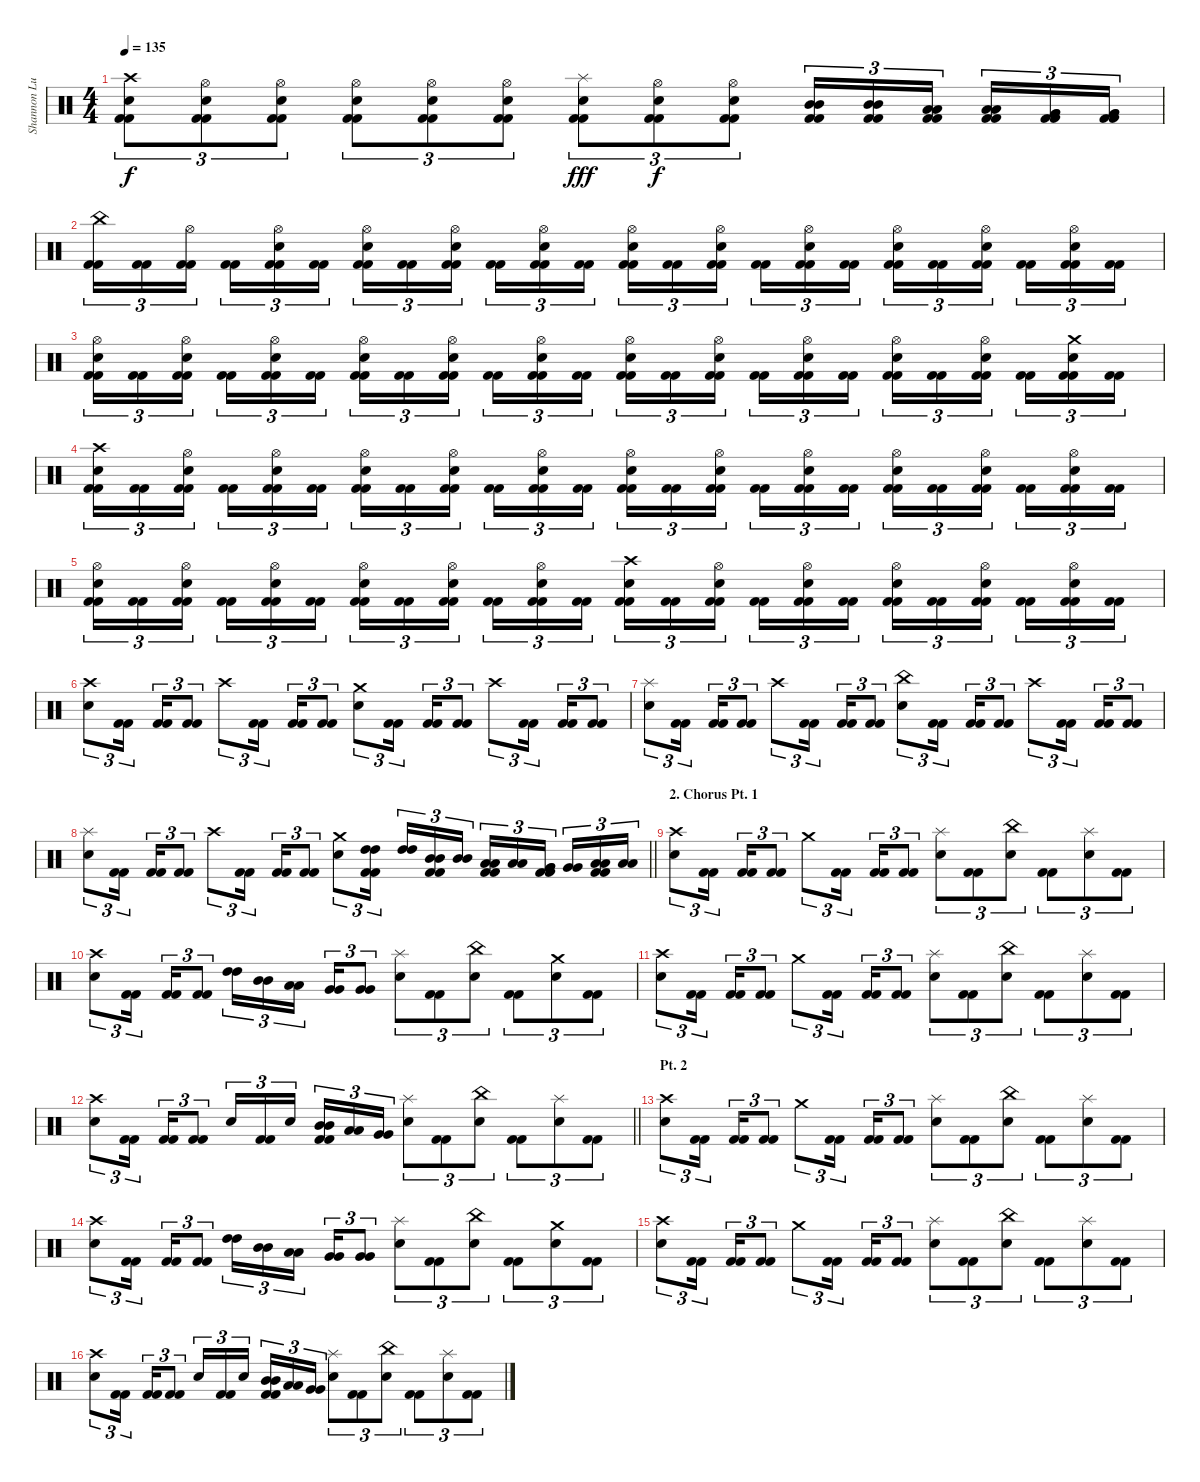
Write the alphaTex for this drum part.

\track ("Shannon Lucas" "Shannon Lu") {instrument percussion}
\staff {score}
\articulation defaults
\ts (4 4)
\tempo 135
\clef neutral
\ks c
("Crash high (hit)" "Electric Snare (hit)" "Kick (hit) 2" "Kick (hit) 2").8{tu (3 2) dy f} ("Hi-Hat (open)" "Electric Snare (hit)" "Kick (hit) 2" "Kick (hit) 2").8{tu (3 2)} ("Hi-Hat (open)" "Electric Snare (hit)" "Kick (hit) 2" "Kick (hit) 2").8{tu (3 2)} ("Hi-Hat (open)" "Electric Snare (hit)" "Kick (hit) 2" "Kick (hit) 2").8{tu (3 2)} ("Hi-Hat (open)" "Electric Snare (hit)" "Kick (hit) 2" "Kick (hit) 2").8{tu (3 2)} ("Hi-Hat (open)" "Electric Snare (hit)" "Kick (hit) 2" "Kick (hit) 2").8{tu (3 2)} ("Splash (hit)" "Electric Snare (hit)" "Kick (hit) 2" "Kick (hit) 2").8{tu (3 2) dy fff} ("Hi-Hat (open)" "Electric Snare (hit)" "Kick (hit) 2" "Kick (hit) 2").8{tu (3 2) dy f} ("Hi-Hat (open)" "Electric Snare (hit)" "Kick (hit) 2" "Kick (hit) 2").8{tu (3 2)} ("Mid Tom (hit)" "Mid Tom (hit)" "Kick (hit) 2" "Kick (hit) 2").16{tu (3 2)} ("Mid Tom (hit)" "Mid Tom (hit)" "Kick (hit) 2" "Kick (hit) 2").16{tu (3 2)} ("Low Tom (hit)" "Low Tom (hit)" "Kick (hit) 2" "Kick (hit) 2").16{tu (3 2) beam splitsecondary} ("Low Tom (hit)" "Low Tom (hit)" "Kick (hit) 2" "Kick (hit) 2").16{tu (3 2)} ("Very Low Tom (hit)" "Very Low Tom (hit)" "Kick (hit) 2" "Kick (hit) 2").16{tu (3 2)} ("Very Low Tom (hit)" "Very Low Tom (hit)" "Kick (hit) 2" "Kick (hit) 2").16{tu (3 2)} |
("China (hit)" "Kick (hit) 2" "Kick (hit) 2").16{tu (3 2)} ("Kick (hit) 2" "Kick (hit) 2").16{tu (3 2)} ("Hi-Hat (open)" "Kick (hit) 2" "Kick (hit) 2").16{tu (3 2) beam splitsecondary} ("Kick (hit) 2" "Kick (hit) 2").16{tu (3 2)} ("Hi-Hat (open)" "Electric Snare (hit)" "Kick (hit) 2" "Kick (hit) 2").16{tu (3 2)} ("Kick (hit) 2" "Kick (hit) 2").16{tu (3 2)} ("Hi-Hat (open)" "Electric Snare (hit)" "Kick (hit) 2" "Kick (hit) 2").16{tu (3 2)} ("Kick (hit) 2" "Kick (hit) 2").16{tu (3 2)} ("Hi-Hat (open)" "Electric Snare (hit)" "Kick (hit) 2" "Kick (hit) 2").16{tu (3 2) beam splitsecondary} ("Kick (hit) 2" "Kick (hit) 2").16{tu (3 2)} ("Hi-Hat (open)" "Electric Snare (hit)" "Kick (hit) 2" "Kick (hit) 2").16{tu (3 2)} ("Kick (hit) 2" "Kick (hit) 2").16{tu (3 2)} ("Hi-Hat (open)" "Electric Snare (hit)" "Kick (hit) 2" "Kick (hit) 2").16{tu (3 2)} ("Kick (hit) 2" "Kick (hit) 2").16{tu (3 2)} ("Hi-Hat (open)" "Electric Snare (hit)" "Kick (hit) 2" "Kick (hit) 2").16{tu (3 2) beam splitsecondary} ("Kick (hit) 2" "Kick (hit) 2").16{tu (3 2)} ("Hi-Hat (open)" "Electric Snare (hit)" "Kick (hit) 2" "Kick (hit) 2").16{tu (3 2)} ("Kick (hit) 2" "Kick (hit) 2").16{tu (3 2)} ("Hi-Hat (open)" "Electric Snare (hit)" "Kick (hit) 2" "Kick (hit) 2").16{tu (3 2)} ("Kick (hit) 2" "Kick (hit) 2").16{tu (3 2)} ("Hi-Hat (open)" "Electric Snare (hit)" "Kick (hit) 2" "Kick (hit) 2").16{tu (3 2) beam splitsecondary} ("Kick (hit) 2" "Kick (hit) 2").16{tu (3 2)} ("Hi-Hat (open)" "Electric Snare (hit)" "Kick (hit) 2" "Kick (hit) 2").16{tu (3 2)} ("Kick (hit) 2" "Kick (hit) 2").16{tu (3 2)} |
("Hi-Hat (open)" "Electric Snare (hit)" "Kick (hit) 2" "Kick (hit) 2").16{tu (3 2)} ("Kick (hit) 2" "Kick (hit) 2").16{tu (3 2)} ("Hi-Hat (open)" "Electric Snare (hit)" "Kick (hit) 2" "Kick (hit) 2").16{tu (3 2) beam splitsecondary} ("Kick (hit) 2" "Kick (hit) 2").16{tu (3 2)} ("Hi-Hat (open)" "Electric Snare (hit)" "Kick (hit) 2" "Kick (hit) 2").16{tu (3 2)} ("Kick (hit) 2" "Kick (hit) 2").16{tu (3 2)} ("Hi-Hat (open)" "Electric Snare (hit)" "Kick (hit) 2" "Kick (hit) 2").16{tu (3 2)} ("Kick (hit) 2" "Kick (hit) 2").16{tu (3 2)} ("Hi-Hat (open)" "Electric Snare (hit)" "Kick (hit) 2" "Kick (hit) 2").16{tu (3 2) beam splitsecondary} ("Kick (hit) 2" "Kick (hit) 2").16{tu (3 2)} ("Hi-Hat (open)" "Electric Snare (hit)" "Kick (hit) 2" "Kick (hit) 2").16{tu (3 2)} ("Kick (hit) 2" "Kick (hit) 2").16{tu (3 2)} ("Hi-Hat (open)" "Electric Snare (hit)" "Kick (hit) 2" "Kick (hit) 2").16{tu (3 2)} ("Kick (hit) 2" "Kick (hit) 2").16{tu (3 2)} ("Hi-Hat (open)" "Electric Snare (hit)" "Kick (hit) 2" "Kick (hit) 2").16{tu (3 2) beam splitsecondary} ("Kick (hit) 2" "Kick (hit) 2").16{tu (3 2)} ("Hi-Hat (open)" "Electric Snare (hit)" "Kick (hit) 2" "Kick (hit) 2").16{tu (3 2)} ("Kick (hit) 2" "Kick (hit) 2").16{tu (3 2)} ("Hi-Hat (open)" "Electric Snare (hit)" "Kick (hit) 2" "Kick (hit) 2").16{tu (3 2)} ("Kick (hit) 2" "Kick (hit) 2").16{tu (3 2)} ("Hi-Hat (open)" "Electric Snare (hit)" "Kick (hit) 2" "Kick (hit) 2").16{tu (3 2) beam splitsecondary} ("Kick (hit) 2" "Kick (hit) 2").16{tu (3 2)} ("Crash medium (hit)" "Electric Snare (hit)" "Kick (hit) 2" "Kick (hit) 2").16{tu (3 2)} ("Kick (hit) 2" "Kick (hit) 2").16{tu (3 2)} |
("Crash high (hit)" "Electric Snare (hit)" "Kick (hit) 2" "Kick (hit) 2").16{tu (3 2)} ("Kick (hit) 2" "Kick (hit) 2").16{tu (3 2)} ("Hi-Hat (open)" "Electric Snare (hit)" "Kick (hit) 2" "Kick (hit) 2").16{tu (3 2) beam splitsecondary} ("Kick (hit) 2" "Kick (hit) 2").16{tu (3 2)} ("Hi-Hat (open)" "Electric Snare (hit)" "Kick (hit) 2" "Kick (hit) 2").16{tu (3 2)} ("Kick (hit) 2" "Kick (hit) 2").16{tu (3 2)} ("Hi-Hat (open)" "Electric Snare (hit)" "Kick (hit) 2" "Kick (hit) 2").16{tu (3 2)} ("Kick (hit) 2" "Kick (hit) 2").16{tu (3 2)} ("Hi-Hat (open)" "Electric Snare (hit)" "Kick (hit) 2" "Kick (hit) 2").16{tu (3 2) beam splitsecondary} ("Kick (hit) 2" "Kick (hit) 2").16{tu (3 2)} ("Hi-Hat (open)" "Electric Snare (hit)" "Kick (hit) 2" "Kick (hit) 2").16{tu (3 2)} ("Kick (hit) 2" "Kick (hit) 2").16{tu (3 2)} ("Hi-Hat (open)" "Electric Snare (hit)" "Kick (hit) 2" "Kick (hit) 2").16{tu (3 2)} ("Kick (hit) 2" "Kick (hit) 2").16{tu (3 2)} ("Hi-Hat (open)" "Electric Snare (hit)" "Kick (hit) 2" "Kick (hit) 2").16{tu (3 2) beam splitsecondary} ("Kick (hit) 2" "Kick (hit) 2").16{tu (3 2)} ("Hi-Hat (open)" "Electric Snare (hit)" "Kick (hit) 2" "Kick (hit) 2").16{tu (3 2)} ("Kick (hit) 2" "Kick (hit) 2").16{tu (3 2)} ("Hi-Hat (open)" "Electric Snare (hit)" "Kick (hit) 2" "Kick (hit) 2").16{tu (3 2)} ("Kick (hit) 2" "Kick (hit) 2").16{tu (3 2)} ("Hi-Hat (open)" "Electric Snare (hit)" "Kick (hit) 2" "Kick (hit) 2").16{tu (3 2) beam splitsecondary} ("Kick (hit) 2" "Kick (hit) 2").16{tu (3 2)} ("Hi-Hat (open)" "Electric Snare (hit)" "Kick (hit) 2" "Kick (hit) 2").16{tu (3 2)} ("Kick (hit) 2" "Kick (hit) 2").16{tu (3 2)} |
("Hi-Hat (open)" "Electric Snare (hit)" "Kick (hit) 2" "Kick (hit) 2").16{tu (3 2)} ("Kick (hit) 2" "Kick (hit) 2").16{tu (3 2)} ("Hi-Hat (open)" "Electric Snare (hit)" "Kick (hit) 2" "Kick (hit) 2").16{tu (3 2) beam splitsecondary} ("Kick (hit) 2" "Kick (hit) 2").16{tu (3 2)} ("Hi-Hat (open)" "Electric Snare (hit)" "Kick (hit) 2" "Kick (hit) 2").16{tu (3 2)} ("Kick (hit) 2" "Kick (hit) 2").16{tu (3 2)} ("Hi-Hat (open)" "Electric Snare (hit)" "Kick (hit) 2" "Kick (hit) 2").16{tu (3 2)} ("Kick (hit) 2" "Kick (hit) 2").16{tu (3 2)} ("Hi-Hat (open)" "Electric Snare (hit)" "Kick (hit) 2" "Kick (hit) 2").16{tu (3 2) beam splitsecondary} ("Kick (hit) 2" "Kick (hit) 2").16{tu (3 2)} ("Hi-Hat (open)" "Electric Snare (hit)" "Kick (hit) 2" "Kick (hit) 2").16{tu (3 2)} ("Kick (hit) 2" "Kick (hit) 2").16{tu (3 2)} ("Crash high (hit)" "Electric Snare (hit)" "Kick (hit) 2" "Kick (hit) 2").16{tu (3 2)} ("Kick (hit) 2" "Kick (hit) 2").16{tu (3 2)} ("Hi-Hat (open)" "Electric Snare (hit)" "Kick (hit) 2" "Kick (hit) 2").16{tu (3 2) beam splitsecondary} ("Kick (hit) 2" "Kick (hit) 2").16{tu (3 2)} ("Hi-Hat (open)" "Electric Snare (hit)" "Kick (hit) 2" "Kick (hit) 2").16{tu (3 2)} ("Kick (hit) 2" "Kick (hit) 2").16{tu (3 2)} ("Hi-Hat (open)" "Electric Snare (hit)" "Kick (hit) 2" "Kick (hit) 2").16{tu (3 2)} ("Kick (hit) 2" "Kick (hit) 2").16{tu (3 2)} ("Hi-Hat (open)" "Electric Snare (hit)" "Kick (hit) 2" "Kick (hit) 2").16{tu (3 2) beam splitsecondary} ("Kick (hit) 2" "Kick (hit) 2").16{tu (3 2)} ("Hi-Hat (open)" "Electric Snare (hit)" "Kick (hit) 2" "Kick (hit) 2").16{tu (3 2)} ("Kick (hit) 2" "Kick (hit) 2").16{tu (3 2)} |
("Crash high (hit)" "Electric Snare (hit)").8{tu (3 2)} ("Kick (hit) 2" "Kick (hit) 2").16{tu (3 2) beam splitsecondary} ("Kick (hit) 2" "Kick (hit) 2").16{tu (3 2)} ("Kick (hit) 2" "Kick (hit) 2").8{tu (3 2)} "Crash high (hit)".8{tu (3 2)} ("Kick (hit) 2" "Kick (hit) 2").16{tu (3 2) beam splitsecondary} ("Kick (hit) 2" "Kick (hit) 2").16{tu (3 2)} ("Kick (hit) 2" "Kick (hit) 2").8{tu (3 2)} ("Crash medium (hit)" "Electric Snare (hit)").8{tu (3 2)} ("Kick (hit) 2" "Kick (hit) 2").16{tu (3 2) beam splitsecondary} ("Kick (hit) 2" "Kick (hit) 2").16{tu (3 2)} ("Kick (hit) 2" "Kick (hit) 2").8{tu (3 2)} "Crash high (hit)".8{tu (3 2)} ("Kick (hit) 2" "Kick (hit) 2").16{tu (3 2) beam splitsecondary} ("Kick (hit) 2" "Kick (hit) 2").16{tu (3 2)} ("Kick (hit) 2" "Kick (hit) 2").8{tu (3 2)} |
("Splash (hit)" "Electric Snare (hit)").8{tu (3 2)} ("Kick (hit) 2" "Kick (hit) 2").16{tu (3 2) beam splitsecondary} ("Kick (hit) 2" "Kick (hit) 2").16{tu (3 2)} ("Kick (hit) 2" "Kick (hit) 2").8{tu (3 2)} "Crash high (hit)".8{tu (3 2)} ("Kick (hit) 2" "Kick (hit) 2").16{tu (3 2) beam splitsecondary} ("Kick (hit) 2" "Kick (hit) 2").16{tu (3 2)} ("Kick (hit) 2" "Kick (hit) 2").8{tu (3 2)} ("China (hit)" "Electric Snare (hit)").8{tu (3 2)} ("Kick (hit) 2" "Kick (hit) 2").16{tu (3 2) beam splitsecondary} ("Kick (hit) 2" "Kick (hit) 2").16{tu (3 2)} ("Kick (hit) 2" "Kick (hit) 2").8{tu (3 2)} "Crash high (hit)".8{tu (3 2)} ("Kick (hit) 2" "Kick (hit) 2").16{tu (3 2) beam splitsecondary} ("Kick (hit) 2" "Kick (hit) 2").16{tu (3 2)} ("Kick (hit) 2" "Kick (hit) 2").8{tu (3 2)} |
\barLineRight lightlight
("Splash (hit)" "Electric Snare (hit)").8{tu (3 2)} ("Kick (hit) 2" "Kick (hit) 2").16{tu (3 2) beam splitsecondary} ("Kick (hit) 2" "Kick (hit) 2").16{tu (3 2)} ("Kick (hit) 2" "Kick (hit) 2").8{tu (3 2)} "Crash high (hit)".8{tu (3 2)} ("Kick (hit) 2" "Kick (hit) 2").16{tu (3 2) beam splitsecondary} ("Kick (hit) 2" "Kick (hit) 2").16{tu (3 2)} ("Kick (hit) 2" "Kick (hit) 2").8{tu (3 2)} ("Crash medium (hit)" "Electric Snare (hit)").8{tu (3 2)} ("High Tom (hit)" "High Tom (hit)" "Kick (hit) 2" "Kick (hit) 2").16{tu (3 2) beam splitsecondary} ("High Tom (hit)" "High Tom (hit)").16{tu (3 2)} ("Mid Tom (hit)" "Mid Tom (hit)" "Kick (hit) 2" "Kick (hit) 2").16{tu (3 2)} ("Mid Tom (hit)" "Mid Tom (hit)").16{tu (3 2)} ("Low Tom (hit)" "Low Tom (hit)" "Kick (hit) 2" "Kick (hit) 2").16{tu (3 2)} ("Low Tom (hit)" "Low Tom (hit)").16{tu (3 2)} ("Very Low Tom (hit)" "Very Low Tom (hit)" "Kick (hit) 2" "Kick (hit) 2").16{tu (3 2) beam splitsecondary} ("Very Low Tom (hit)" "Very Low Tom (hit)").16{tu (3 2)} ("Low Floor Tom (hit)" "Low Floor Tom (hit)" "Kick (hit) 2" "Kick (hit) 2").16{tu (3 2)} ("Low Floor Tom (hit)" "Low Floor Tom (hit)").16{tu (3 2)} |
\section ("" "2. Chorus Pt. 1")
("Crash high (hit)" "Electric Snare (hit)").8{tu (3 2)} ("Kick (hit) 2" "Kick (hit) 2").16{tu (3 2) beam splitsecondary} ("Kick (hit) 2" "Kick (hit) 2").16{tu (3 2)} ("Kick (hit) 2" "Kick (hit) 2").8{tu (3 2)} "Crash medium (hit)".8{tu (3 2)} ("Kick (hit) 2" "Kick (hit) 2").16{tu (3 2) beam splitsecondary} ("Kick (hit) 2" "Kick (hit) 2").16{tu (3 2)} ("Kick (hit) 2" "Kick (hit) 2").8{tu (3 2)} ("Splash (hit)" "Electric Snare (hit)").8{tu (3 2)} ("Kick (hit) 2" "Kick (hit) 2").8{tu (3 2)} ("China (hit)" "Electric Snare (hit)").8{tu (3 2)} ("Kick (hit) 2" "Kick (hit) 2").8{tu (3 2)} ("Splash (hit)" "Electric Snare (hit)").8{tu (3 2)} ("Kick (hit) 2" "Kick (hit) 2").8{tu (3 2)} |
("Crash high (hit)" "Electric Snare (hit)").8{tu (3 2)} ("Kick (hit) 2" "Kick (hit) 2").16{tu (3 2) beam splitsecondary} ("Kick (hit) 2" "Kick (hit) 2").16{tu (3 2)} ("Kick (hit) 2" "Kick (hit) 2").8{tu (3 2)} ("High Tom (hit)" "High Tom (hit)").16{tu (3 2)} ("Mid Tom (hit)" "Mid Tom (hit)").16{tu (3 2)} ("Low Tom (hit)" "Low Tom (hit)").16{tu (3 2) beam splitsecondary} ("Very Low Tom (hit)" "Very Low Tom (hit)").16{tu (3 2)} ("Very Low Tom (hit)" "Very Low Tom (hit)").8{tu (3 2)} ("Splash (hit)" "Electric Snare (hit)").8{tu (3 2)} ("Kick (hit) 2" "Kick (hit) 2").8{tu (3 2)} ("China (hit)" "Electric Snare (hit)").8{tu (3 2)} ("Kick (hit) 2" "Kick (hit) 2").8{tu (3 2)} ("Crash medium (hit)" "Electric Snare (hit)").8{tu (3 2)} ("Kick (hit) 2" "Kick (hit) 2").8{tu (3 2)} |
("Crash high (hit)" "Electric Snare (hit)").8{tu (3 2)} ("Kick (hit) 2" "Kick (hit) 2").16{tu (3 2) beam splitsecondary} ("Kick (hit) 2" "Kick (hit) 2").16{tu (3 2)} ("Kick (hit) 2" "Kick (hit) 2").8{tu (3 2)} "Crash medium (hit)".8{tu (3 2)} ("Kick (hit) 2" "Kick (hit) 2").16{tu (3 2) beam splitsecondary} ("Kick (hit) 2" "Kick (hit) 2").16{tu (3 2)} ("Kick (hit) 2" "Kick (hit) 2").8{tu (3 2)} ("Splash (hit)" "Electric Snare (hit)").8{tu (3 2)} ("Kick (hit) 2" "Kick (hit) 2").8{tu (3 2)} ("China (hit)" "Electric Snare (hit)").8{tu (3 2)} ("Kick (hit) 2" "Kick (hit) 2").8{tu (3 2)} ("Splash (hit)" "Electric Snare (hit)").8{tu (3 2)} ("Kick (hit) 2" "Kick (hit) 2").8{tu (3 2)} |
\barLineRight lightlight
("Crash high (hit)" "Electric Snare (hit)").8{tu (3 2)} ("Kick (hit) 2" "Kick (hit) 2").16{tu (3 2) beam splitsecondary} ("Kick (hit) 2" "Kick (hit) 2").16{tu (3 2)} ("Kick (hit) 2" "Kick (hit) 2").8{tu (3 2)} "Electric Snare (hit)".16{tu (3 2)} ("Kick (hit) 2" "Kick (hit) 2").16{tu (3 2)} "Electric Snare (hit)".16{tu (3 2) beam splitsecondary} ("Mid Tom (hit)" "Mid Tom (hit)" "Kick (hit) 2" "Kick (hit) 2").16{tu (3 2)} ("Low Tom (hit)" "Low Tom (hit)").16{tu (3 2)} ("Very Low Tom (hit)" "Very Low Tom (hit)").16{tu (3 2)} ("Splash (hit)" "Electric Snare (hit)").8{tu (3 2)} ("Kick (hit) 2" "Kick (hit) 2").8{tu (3 2)} ("China (hit)" "Electric Snare (hit)").8{tu (3 2)} ("Kick (hit) 2" "Kick (hit) 2").8{tu (3 2)} ("Splash (hit)" "Electric Snare (hit)").8{tu (3 2)} ("Kick (hit) 2" "Kick (hit) 2").8{tu (3 2)} |
\section ("" "Pt. 2")
("Crash high (hit)" "Electric Snare (hit)").8{tu (3 2)} ("Kick (hit) 2" "Kick (hit) 2").16{tu (3 2) beam splitsecondary} ("Kick (hit) 2" "Kick (hit) 2").16{tu (3 2)} ("Kick (hit) 2" "Kick (hit) 2").8{tu (3 2)} "Crash medium (hit)".8{tu (3 2)} ("Kick (hit) 2" "Kick (hit) 2").16{tu (3 2) beam splitsecondary} ("Kick (hit) 2" "Kick (hit) 2").16{tu (3 2)} ("Kick (hit) 2" "Kick (hit) 2").8{tu (3 2)} ("Splash (hit)" "Electric Snare (hit)").8{tu (3 2)} ("Kick (hit) 2" "Kick (hit) 2").8{tu (3 2)} ("China (hit)" "Electric Snare (hit)").8{tu (3 2)} ("Kick (hit) 2" "Kick (hit) 2").8{tu (3 2)} ("Splash (hit)" "Electric Snare (hit)").8{tu (3 2)} ("Kick (hit) 2" "Kick (hit) 2").8{tu (3 2)} |
("Crash high (hit)" "Electric Snare (hit)").8{tu (3 2)} ("Kick (hit) 2" "Kick (hit) 2").16{tu (3 2) beam splitsecondary} ("Kick (hit) 2" "Kick (hit) 2").16{tu (3 2)} ("Kick (hit) 2" "Kick (hit) 2").8{tu (3 2)} ("High Tom (hit)" "High Tom (hit)").16{tu (3 2)} ("Mid Tom (hit)" "Mid Tom (hit)").16{tu (3 2)} ("Low Tom (hit)" "Low Tom (hit)").16{tu (3 2) beam splitsecondary} ("Very Low Tom (hit)" "Very Low Tom (hit)").16{tu (3 2)} ("Very Low Tom (hit)" "Very Low Tom (hit)").8{tu (3 2)} ("Splash (hit)" "Electric Snare (hit)").8{tu (3 2)} ("Kick (hit) 2" "Kick (hit) 2").8{tu (3 2)} ("China (hit)" "Electric Snare (hit)").8{tu (3 2)} ("Kick (hit) 2" "Kick (hit) 2").8{tu (3 2)} ("Crash medium (hit)" "Electric Snare (hit)").8{tu (3 2)} ("Kick (hit) 2" "Kick (hit) 2").8{tu (3 2)} |
("Crash high (hit)" "Electric Snare (hit)").8{tu (3 2)} ("Kick (hit) 2" "Kick (hit) 2").16{tu (3 2) beam splitsecondary} ("Kick (hit) 2" "Kick (hit) 2").16{tu (3 2)} ("Kick (hit) 2" "Kick (hit) 2").8{tu (3 2)} "Crash medium (hit)".8{tu (3 2)} ("Kick (hit) 2" "Kick (hit) 2").16{tu (3 2) beam splitsecondary} ("Kick (hit) 2" "Kick (hit) 2").16{tu (3 2)} ("Kick (hit) 2" "Kick (hit) 2").8{tu (3 2)} ("Splash (hit)" "Electric Snare (hit)").8{tu (3 2)} ("Kick (hit) 2" "Kick (hit) 2").8{tu (3 2)} ("China (hit)" "Electric Snare (hit)").8{tu (3 2)} ("Kick (hit) 2" "Kick (hit) 2").8{tu (3 2)} ("Splash (hit)" "Electric Snare (hit)").8{tu (3 2)} ("Kick (hit) 2" "Kick (hit) 2").8{tu (3 2)} |
("Crash high (hit)" "Electric Snare (hit)").8{tu (3 2)} ("Kick (hit) 2" "Kick (hit) 2").16{tu (3 2) beam splitsecondary} ("Kick (hit) 2" "Kick (hit) 2").16{tu (3 2)} ("Kick (hit) 2" "Kick (hit) 2").8{tu (3 2)} "Electric Snare (hit)".16{tu (3 2)} ("Kick (hit) 2" "Kick (hit) 2").16{tu (3 2)} "Electric Snare (hit)".16{tu (3 2) beam splitsecondary} ("Mid Tom (hit)" "Mid Tom (hit)" "Kick (hit) 2" "Kick (hit) 2").16{tu (3 2)} ("Low Tom (hit)" "Low Tom (hit)").16{tu (3 2)} ("Very Low Tom (hit)" "Very Low Tom (hit)").16{tu (3 2)} ("Splash (hit)" "Electric Snare (hit)").8{tu (3 2)} ("Kick (hit) 2" "Kick (hit) 2").8{tu (3 2)} ("China (hit)" "Electric Snare (hit)").8{tu (3 2)} ("Kick (hit) 2" "Kick (hit) 2").8{tu (3 2)} ("Splash (hit)" "Electric Snare (hit)").8{tu (3 2)} ("Kick (hit) 2" "Kick (hit) 2").8{tu (3 2)}
